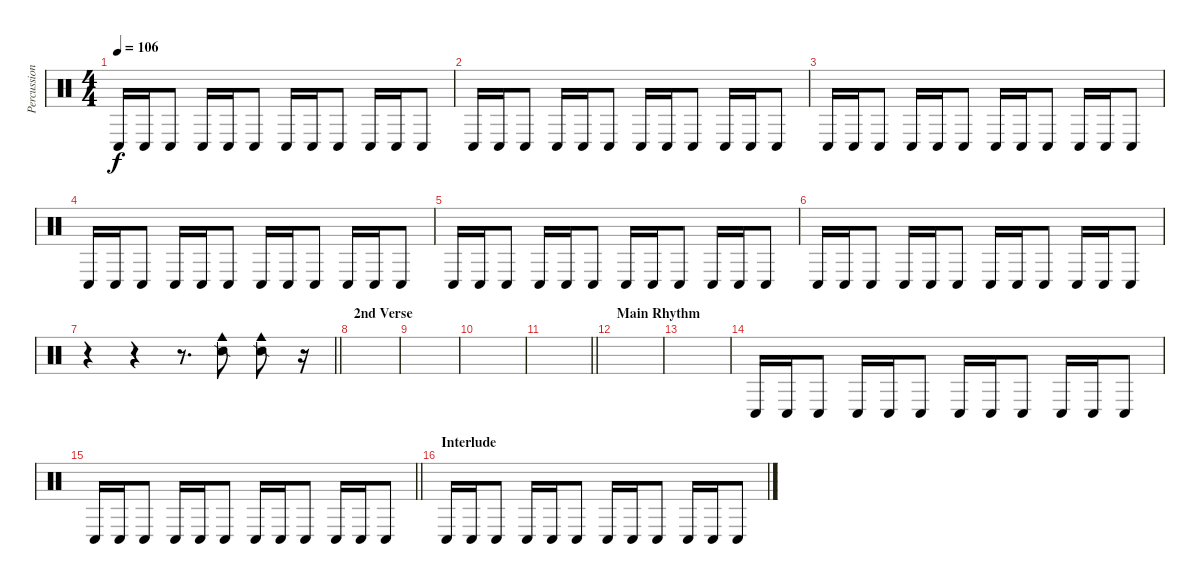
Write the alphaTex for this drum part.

\track ("Percussion 2" "Percussion") {instrument percussion}
\staff {score}
\articulation defaults
\ts (4 4)
\tempo 106
\clef neutral
\ks c "Conga low (hit)".16{dy f} "Conga low (hit)".16 "Conga low (hit)".8 "Conga low (hit)".16 "Conga low (hit)".16 "Conga low (hit)".8 "Conga low (hit)".16 "Conga low (hit)".16 "Conga low (hit)".8 "Conga low (hit)".16 "Conga low (hit)".16 "Conga low (hit)".8
|
"Conga low (hit)".16 "Conga low (hit)".16 "Conga low (hit)".8 "Conga low (hit)".16 "Conga low (hit)".16 "Conga low (hit)".8 "Conga low (hit)".16 "Conga low (hit)".16 "Conga low (hit)".8 "Conga low (hit)".16 "Conga low (hit)".16 "Conga low (hit)".8 |
"Conga low (hit)".16 "Conga low (hit)".16 "Conga low (hit)".8 "Conga low (hit)".16 "Conga low (hit)".16 "Conga low (hit)".8 "Conga low (hit)".16 "Conga low (hit)".16 "Conga low (hit)".8 "Conga low (hit)".16 "Conga low (hit)".16 "Conga low (hit)".8 |
"Conga low (hit)".16 "Conga low (hit)".16 "Conga low (hit)".8 "Conga low (hit)".16 "Conga low (hit)".16 "Conga low (hit)".8 "Conga low (hit)".16 "Conga low (hit)".16 "Conga low (hit)".8 "Conga low (hit)".16 "Conga low (hit)".16 "Conga low (hit)".8 |
"Conga low (hit)".16 "Conga low (hit)".16 "Conga low (hit)".8 "Conga low (hit)".16 "Conga low (hit)".16 "Conga low (hit)".8 "Conga low (hit)".16 "Conga low (hit)".16 "Conga low (hit)".8 "Conga low (hit)".16 "Conga low (hit)".16 "Conga low (hit)".8 |
"Conga low (hit)".16 "Conga low (hit)".16 "Conga low (hit)".8 "Conga low (hit)".16 "Conga low (hit)".16 "Conga low (hit)".8 "Conga low (hit)".16 "Conga low (hit)".16 "Conga low (hit)".8 "Conga low (hit)".16 "Conga low (hit)".16 "Conga low (hit)".8 |
\barLineRight lightlight
r.4 r.4 r.8{d} ("Cowbell medium (hit)" "Snare (side stick) 2").8 ("Cowbell medium (hit)" "Snare (side stick) 2").8 r.16 |
\section ("" "2nd Verse")
|
|
|
\barLineRight lightlight
|
\section ("" "Main Rhythm ")
|
|
"Conga low (hit)".16 "Conga low (hit)".16 "Conga low (hit)".8 "Conga low (hit)".16 "Conga low (hit)".16 "Conga low (hit)".8 "Conga low (hit)".16 "Conga low (hit)".16 "Conga low (hit)".8 "Conga low (hit)".16 "Conga low (hit)".16 "Conga low (hit)".8 |
\barLineRight lightlight "Conga low (hit)".16 "Conga low (hit)".16 "Conga low (hit)".8 "Conga low (hit)".16 "Conga low (hit)".16 "Conga low (hit)".8 "Conga low (hit)".16 "Conga low (hit)".16 "Conga low (hit)".8 "Conga low (hit)".16 "Conga low (hit)".16 "Conga low (hit)".8
|
\section ("" "Interlude")
"Conga low (hit)".16 "Conga low (hit)".16 "Conga low (hit)".8 "Conga low (hit)".16 "Conga low (hit)".16 "Conga low (hit)".8 "Conga low (hit)".16 "Conga low (hit)".16 "Conga low (hit)".8 "Conga low (hit)".16 "Conga low (hit)".16 "Conga low (hit)".8
